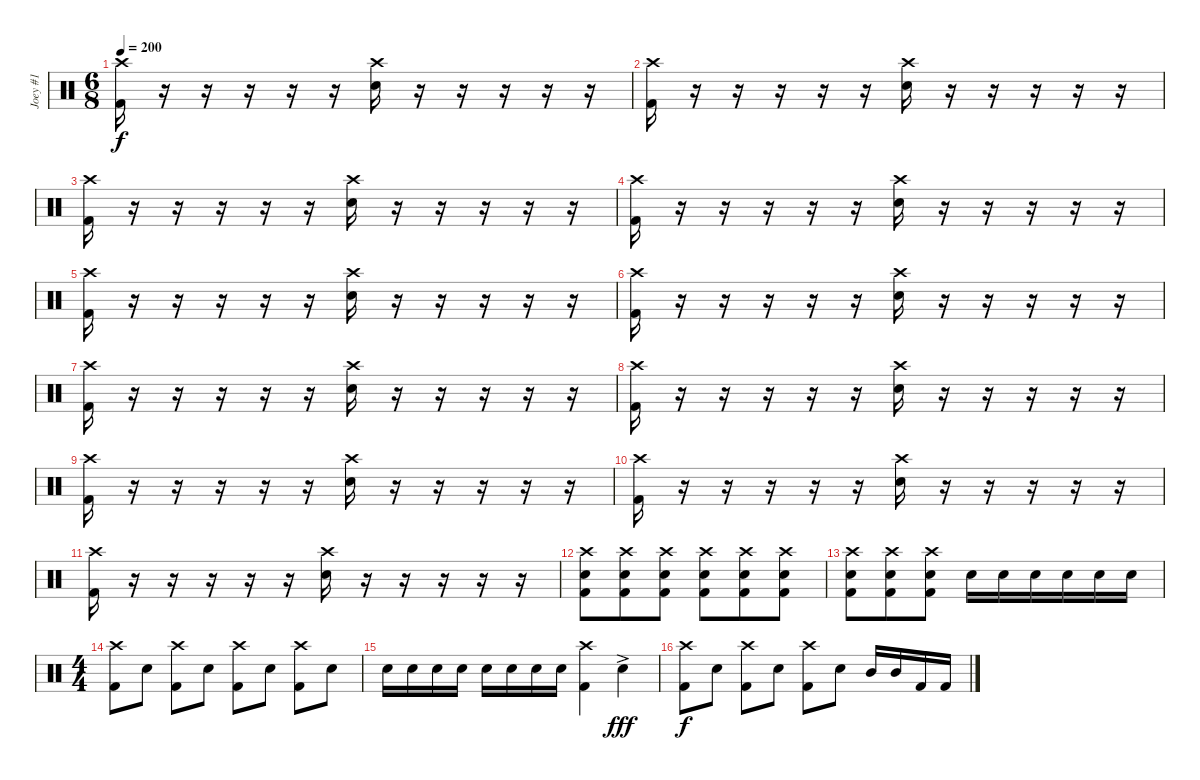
\track ("Joey #1" "Joey #1") {instrument percussion}
\staff {score}
\articulation defaults
\ts (6 8)
\tempo 200
\clef neutral
\ks c
("Crash high (hit)" "Kick (hit) 2").16{dy f} r.16 r.16 r.16 r.16 r.16 ("Crash high (hit)" "Electric Snare (hit)").16 r.16 r.16 r.16 r.16 r.16 |
("Crash high (hit)" "Kick (hit) 2").16 r.16 r.16 r.16 r.16 r.16 ("Crash high (hit)" "Electric Snare (hit)").16 r.16 r.16 r.16 r.16 r.16 |
("Crash high (hit)" "Kick (hit) 2").16 r.16 r.16 r.16 r.16 r.16 ("Crash high (hit)" "Electric Snare (hit)").16 r.16 r.16 r.16 r.16 r.16 |
("Crash high (hit)" "Kick (hit) 2").16 r.16 r.16 r.16 r.16 r.16 ("Crash high (hit)" "Electric Snare (hit)").16 r.16 r.16 r.16 r.16 r.16 |
("Crash high (hit)" "Kick (hit) 2").16 r.16 r.16 r.16 r.16 r.16 ("Crash high (hit)" "Electric Snare (hit)").16 r.16 r.16 r.16 r.16 r.16 |
("Crash high (hit)" "Kick (hit) 2").16 r.16 r.16 r.16 r.16 r.16 ("Crash high (hit)" "Electric Snare (hit)").16 r.16 r.16 r.16 r.16 r.16 |
("Crash high (hit)" "Kick (hit) 2").16 r.16 r.16 r.16 r.16 r.16 ("Crash high (hit)" "Electric Snare (hit)").16 r.16 r.16 r.16 r.16 r.16 |
("Crash high (hit)" "Kick (hit) 2").16 r.16 r.16 r.16 r.16 r.16 ("Crash high (hit)" "Electric Snare (hit)").16 r.16 r.16 r.16 r.16 r.16 |
("Crash high (hit)" "Kick (hit) 2").16 r.16 r.16 r.16 r.16 r.16 ("Crash high (hit)" "Electric Snare (hit)").16 r.16 r.16 r.16 r.16 r.16 |
("Crash high (hit)" "Kick (hit) 2").16 r.16 r.16 r.16 r.16 r.16 ("Crash high (hit)" "Electric Snare (hit)").16 r.16 r.16 r.16 r.16 r.16 |
("Crash high (hit)" "Kick (hit) 2").16 r.16 r.16 r.16 r.16 r.16 ("Crash high (hit)" "Electric Snare (hit)").16 r.16 r.16 r.16 r.16 r.16 |
("Crash high (hit)" "Electric Snare (hit)" "Kick (hit) 2").8 ("Crash high (hit)" "Electric Snare (hit)" "Kick (hit) 2").8 ("Crash high (hit)" "Electric Snare (hit)" "Kick (hit) 2").8 ("Crash high (hit)" "Electric Snare (hit)" "Kick (hit) 2").8 ("Crash high (hit)" "Electric Snare (hit)" "Kick (hit) 2").8 ("Crash high (hit)" "Electric Snare (hit)" "Kick (hit) 2").8 |
("Crash high (hit)" "Electric Snare (hit)" "Kick (hit) 2").8 ("Crash high (hit)" "Electric Snare (hit)" "Kick (hit) 2").8 ("Crash high (hit)" "Electric Snare (hit)" "Kick (hit) 2").8 "Electric Snare (hit)".16 "Electric Snare (hit)".16 "Electric Snare (hit)".16 "Electric Snare (hit)".16 "Electric Snare (hit)".16 "Electric Snare (hit)".16 |
\ts (4 4)
("Crash high (hit)" "Kick (hit) 2").8 "Electric Snare (hit)".8 ("Crash high (hit)" "Kick (hit) 2").8 "Electric Snare (hit)".8 ("Crash high (hit)" "Kick (hit) 2").8 "Electric Snare (hit)".8 ("Crash high (hit)" "Kick (hit) 2").8 "Electric Snare (hit)".8 |
"Electric Snare (hit)".16 "Electric Snare (hit)".16 "Electric Snare (hit)".16 "Electric Snare (hit)".16 "Electric Snare (hit)".16 "Electric Snare (hit)".16 "Electric Snare (hit)".16 "Electric Snare (hit)".16 ("Crash high (hit)" "Kick (hit) 2").4 "Electric Snare (hit)"{ac}.4{dy fff} |
("Crash high (hit)" "Kick (hit) 2").8{dy f} "Electric Snare (hit)".8 ("Crash high (hit)" "Kick (hit) 2").8 "Electric Snare (hit)".8 ("Crash high (hit)" "Kick (hit) 2").8 "Electric Snare (hit)".8 "Mid Tom (hit)".16 "Mid Tom (hit)".16 "Kick (hit) 2".16 "Kick (hit) 2".16
